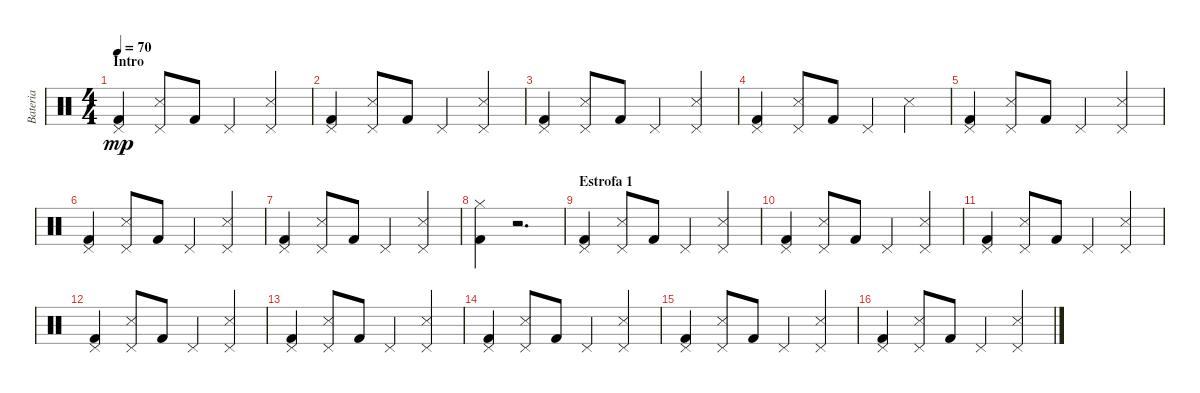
\track ("Bateria" "Bateria") {instrument percussion}
\staff {score}
\articulation defaults
\ts (4 4)
\section ("" "Intro")
\tempo 70
\clef neutral
\ks c
("Kick (hit) 2" "Pedal Hi-Hat (hit)").4{dy mp} ("Snare (side stick) 3" "Pedal Hi-Hat (hit)").8 "Kick (hit) 2".8 "Pedal Hi-Hat (hit)".4 ("Snare (side stick) 3" "Pedal Hi-Hat (hit)").4 |
("Kick (hit) 2" "Pedal Hi-Hat (hit)").4 ("Snare (side stick) 3" "Pedal Hi-Hat (hit)").8 "Kick (hit) 2".8 "Pedal Hi-Hat (hit)".4 ("Snare (side stick) 3" "Pedal Hi-Hat (hit)").4 |
("Kick (hit) 2" "Pedal Hi-Hat (hit)").4 ("Snare (side stick) 3" "Pedal Hi-Hat (hit)").8 "Kick (hit) 2".8 "Pedal Hi-Hat (hit)".4 ("Snare (side stick) 3" "Pedal Hi-Hat (hit)").4 |
("Kick (hit) 2" "Pedal Hi-Hat (hit)").4 ("Snare (side stick) 3" "Pedal Hi-Hat (hit)").8 "Kick (hit) 2".8 "Pedal Hi-Hat (hit)".4 "Snare (side stick) 3".4 |
("Kick (hit) 2" "Pedal Hi-Hat (hit)").4 ("Snare (side stick) 3" "Pedal Hi-Hat (hit)").8 "Kick (hit) 2".8 "Pedal Hi-Hat (hit)".4 ("Snare (side stick) 3" "Pedal Hi-Hat (hit)").4 |
("Kick (hit) 2" "Pedal Hi-Hat (hit)").4 ("Snare (side stick) 3" "Pedal Hi-Hat (hit)").8 "Kick (hit) 2".8 "Pedal Hi-Hat (hit)".4 ("Snare (side stick) 3" "Pedal Hi-Hat (hit)").4 |
("Kick (hit) 2" "Pedal Hi-Hat (hit)").4 ("Snare (side stick) 3" "Pedal Hi-Hat (hit)").8 "Kick (hit) 2".8 "Pedal Hi-Hat (hit)".4 ("Snare (side stick) 3" "Pedal Hi-Hat (hit)").4 |
("Kick (hit) 2" "Hi-Hat (closed)").4 r.2{d} |
\section ("" "Estrofa 1")
("Kick (hit) 2" "Pedal Hi-Hat (hit)").4 ("Snare (side stick) 3" "Pedal Hi-Hat (hit)").8 "Kick (hit) 2".8 "Pedal Hi-Hat (hit)".4 ("Snare (side stick) 3" "Pedal Hi-Hat (hit)").4 |
("Kick (hit) 2" "Pedal Hi-Hat (hit)").4 ("Snare (side stick) 3" "Pedal Hi-Hat (hit)").8 "Kick (hit) 2".8 "Pedal Hi-Hat (hit)".4 ("Snare (side stick) 3" "Pedal Hi-Hat (hit)").4 |
("Kick (hit) 2" "Pedal Hi-Hat (hit)").4 ("Snare (side stick) 3" "Pedal Hi-Hat (hit)").8 "Kick (hit) 2".8 "Pedal Hi-Hat (hit)".4 ("Snare (side stick) 3" "Pedal Hi-Hat (hit)").4 |
("Kick (hit) 2" "Pedal Hi-Hat (hit)").4 ("Snare (side stick) 3" "Pedal Hi-Hat (hit)").8 "Kick (hit) 2".8 "Pedal Hi-Hat (hit)".4 ("Snare (side stick) 3" "Pedal Hi-Hat (hit)").4 |
("Kick (hit) 2" "Pedal Hi-Hat (hit)").4 ("Snare (side stick) 3" "Pedal Hi-Hat (hit)").8 "Kick (hit) 2".8 "Pedal Hi-Hat (hit)".4 ("Snare (side stick) 3" "Pedal Hi-Hat (hit)").4 |
("Kick (hit) 2" "Pedal Hi-Hat (hit)").4 ("Snare (side stick) 3" "Pedal Hi-Hat (hit)").8 "Kick (hit) 2".8 "Pedal Hi-Hat (hit)".4 ("Snare (side stick) 3" "Pedal Hi-Hat (hit)").4 |
("Kick (hit) 2" "Pedal Hi-Hat (hit)").4 ("Snare (side stick) 3" "Pedal Hi-Hat (hit)").8 "Kick (hit) 2".8 "Pedal Hi-Hat (hit)".4 ("Snare (side stick) 3" "Pedal Hi-Hat (hit)").4 |
("Kick (hit) 2" "Pedal Hi-Hat (hit)").4 ("Snare (side stick) 3" "Pedal Hi-Hat (hit)").8 "Kick (hit) 2".8 "Pedal Hi-Hat (hit)".4 ("Snare (side stick) 3" "Pedal Hi-Hat (hit)").4
